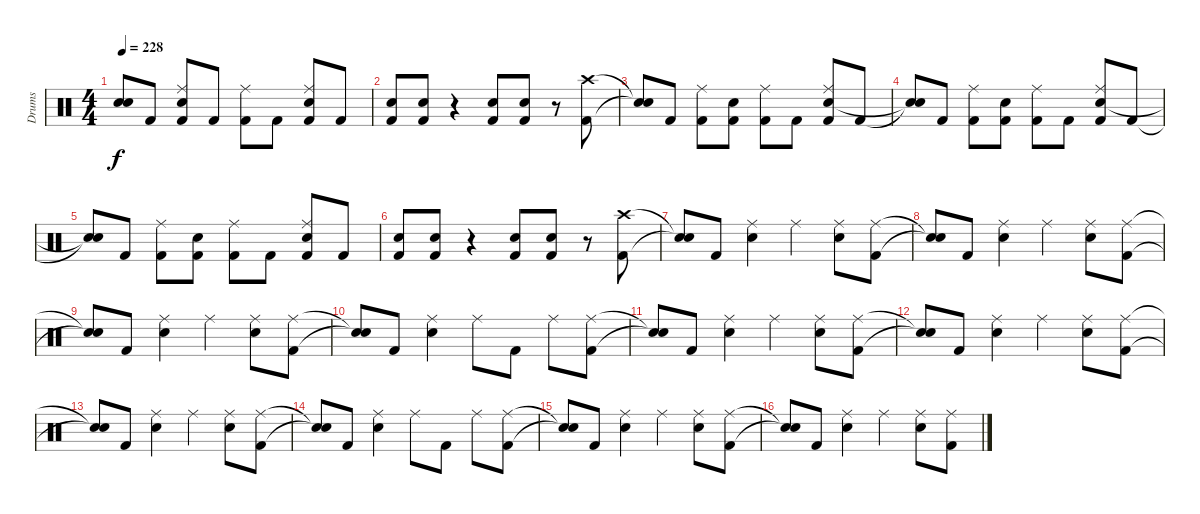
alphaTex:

\track ("Drums" "Drums") {instrument percussion}
\staff {score}
\articulation defaults
\ts (4 4)
\tempo 228
\clef neutral
\ks c
("Snare (hit)"{t} "Snare (hit)"{t}).8{dy f} "Kick (hit) 2".8 ("Ride (middle)" "Electric Snare (hit)" "Kick (hit) 2").8 "Kick (hit) 2".8 ("Ride (middle)" "Kick (hit) 2").8 "Kick (hit) 2".8 ("Ride (middle)" "Electric Snare (hit)" "Kick (hit) 2").8 "Kick (hit) 2".8 |
("Electric Snare (hit)" "Kick (hit) 2").8 ("Electric Snare (hit)" "Kick (hit) 2").8 r.4 ("Electric Snare (hit)" "Kick (hit) 2").8 ("Electric Snare (hit)" "Kick (hit) 2").8 r.8 ("Crash high (hit)" "Kick (hit) 2").8 |
("Snare (hit)"{t} "Snare (hit)"{t}).8 "Kick (hit) 2".8 ("Ride (middle)" "Kick (hit) 2").8 ("Electric Snare (hit)" "Kick (hit) 2").8 ("Ride (middle)" "Kick (hit) 2").8 "Kick (hit) 2".8 ("Ride (middle)" "Electric Snare (hit)" "Kick (hit) 2").8 "Kick (hit) 2".8 |
("Snare (hit)"{t} "Snare (hit)"{t}).8 "Kick (hit) 2".8 ("Ride (middle)" "Kick (hit) 2").8 ("Electric Snare (hit)" "Kick (hit) 2").8 ("Ride (middle)" "Kick (hit) 2").8 "Kick (hit) 2".8 ("Ride (middle)" "Electric Snare (hit)" "Kick (hit) 2").8 "Kick (hit) 2".8 |
("Snare (hit)"{t} "Snare (hit)"{t}).8 "Kick (hit) 2".8 ("Ride (middle)" "Kick (hit) 2").8 ("Electric Snare (hit)" "Kick (hit) 2").8 ("Ride (middle)" "Kick (hit) 2").8 "Kick (hit) 2".8 ("Ride (middle)" "Electric Snare (hit)" "Kick (hit) 2").8 "Kick (hit) 2".8 |
("Electric Snare (hit)" "Kick (hit) 2").8 ("Electric Snare (hit)" "Kick (hit) 2").8 r.4 ("Electric Snare (hit)" "Kick (hit) 2").8 ("Electric Snare (hit)" "Kick (hit) 2").8 r.8 ("Crash high (hit)" "Kick (hit) 2").8 |
("Snare (hit)"{t} "Snare (hit)"{t}).8 "Kick (hit) 2".8 ("Ride (middle)" "Electric Snare (hit)").4 "Ride (middle)".4 ("Ride (middle)" "Electric Snare (hit)").8 ("Ride (middle)" "Kick (hit) 2").8 |
("Snare (hit)"{t} "Snare (hit)"{t}).8 "Kick (hit) 2".8 ("Ride (middle)" "Electric Snare (hit)").4 "Ride (middle)".4 ("Ride (middle)" "Electric Snare (hit)").8 ("Ride (middle)" "Kick (hit) 2").8 |
("Snare (hit)"{t} "Snare (hit)"{t}).8 "Kick (hit) 2".8 ("Ride (middle)" "Electric Snare (hit)").4 "Ride (middle)".4 ("Ride (middle)" "Electric Snare (hit)").8 ("Ride (middle)" "Kick (hit) 2").8 |
("Snare (hit)"{t} "Snare (hit)"{t}).8 "Kick (hit) 2".8 ("Ride (middle)" "Electric Snare (hit)").4 "Ride (middle)".8 "Kick (hit) 2".8 "Ride (middle)".8 ("Ride (middle)" "Kick (hit) 2").8 |
("Snare (hit)"{t} "Snare (hit)"{t}).8 "Kick (hit) 2".8 ("Ride (middle)" "Electric Snare (hit)").4 "Ride (middle)".4 ("Ride (middle)" "Electric Snare (hit)").8 ("Ride (middle)" "Kick (hit) 2").8 |
("Snare (hit)"{t} "Snare (hit)"{t}).8 "Kick (hit) 2".8 ("Ride (middle)" "Electric Snare (hit)").4 "Ride (middle)".4 ("Ride (middle)" "Electric Snare (hit)").8 ("Ride (middle)" "Kick (hit) 2").8 |
("Snare (hit)"{t} "Snare (hit)"{t}).8 "Kick (hit) 2".8 ("Ride (middle)" "Electric Snare (hit)").4 "Ride (middle)".4 ("Ride (middle)" "Electric Snare (hit)").8 ("Ride (middle)" "Kick (hit) 2").8 |
("Snare (hit)"{t} "Snare (hit)"{t}).8 "Kick (hit) 2".8 ("Ride (middle)" "Electric Snare (hit)").4 "Ride (middle)".8 "Kick (hit) 2".8 "Ride (middle)".8 ("Ride (middle)" "Kick (hit) 2").8 |
("Snare (hit)"{t} "Snare (hit)"{t}).8 "Kick (hit) 2".8 ("Ride (middle)" "Electric Snare (hit)").4 "Ride (middle)".4 ("Ride (middle)" "Electric Snare (hit)").8 ("Ride (middle)" "Kick (hit) 2").8 |
("Snare (hit)"{t} "Snare (hit)"{t}).8 "Kick (hit) 2".8 ("Ride (middle)" "Electric Snare (hit)").4 "Ride (middle)".4 ("Ride (middle)" "Electric Snare (hit)").8 ("Ride (middle)" "Kick (hit) 2").8
